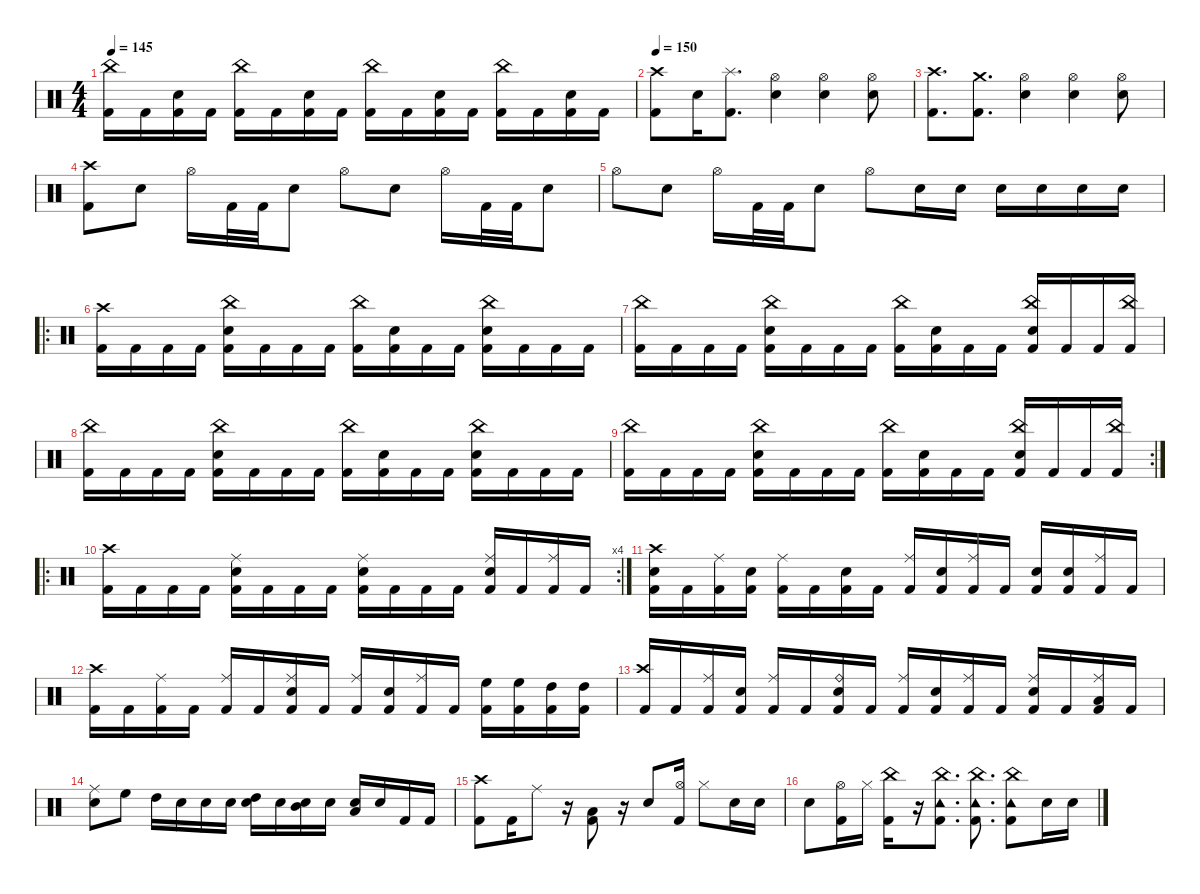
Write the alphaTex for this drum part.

\defaultSystemsLayout 4
\hideDynamics
\bracketExtendMode nobrackets
\singleTrackTrackNamePolicy hidden
\multiTrackTrackNamePolicy hidden
\firstSystemTrackNameMode fullname
\otherSystemsTrackNameOrientation horizontal
\track ("Drums" "drm.") {instrument percussion}
\staff {score}
\articulation defaults
\ts (4 4)
\tempo 145
\clef neutral
\ks c
("Kick (hit) 2" "China (hit)").16{dy f beam Down} "Kick (hit) 2".16{beam Down} ("Snare (hit) 2" "Kick (hit) 2").16{beam Down} "Kick (hit) 2".16{beam Down} ("Kick (hit) 2" "China (hit)").16{beam Down} "Kick (hit) 2".16{beam Down} ("Snare (hit) 2" "Kick (hit) 2").16{beam Down} "Kick (hit) 2".16{beam Down} ("Kick (hit) 2" "China (hit)").16{beam Down} "Kick (hit) 2".16{beam Down} ("Snare (hit) 2" "Kick (hit) 2").16{beam Down} "Kick (hit) 2".16{beam Down} ("Kick (hit) 2" "China (hit)").16{beam Down} "Kick (hit) 2".16{beam Down} ("Snare (hit) 2" "Kick (hit) 2").16{beam Down} "Kick (hit) 2".16{beam Down} |
\tempo 150
("Kick (hit) 2" "Crash high (hit)").8{beam Down} "Snare (hit) 2".16{beam Down} ("Splash (hit)" "Kick (hit) 2").8{d beam Down} ("Hi-Hat (open)" "Snare (hit) 2").4{beam Down} ("Hi-Hat (open)" "Snare (hit) 2").4{beam Down} ("Hi-Hat (open)" "Snare (hit) 2").8{beam Down} |
("Kick (hit) 2" "Crash high (hit)").8{d beam Down} ("Kick (hit) 2" "Crash medium (hit)").8{d beam Down} ("Hi-Hat (open)" "Snare (hit) 2").4{beam Down} ("Hi-Hat (open)" "Snare (hit) 2").4{beam Down} ("Hi-Hat (open)" "Snare (hit) 2").8{beam Down} |
("Kick (hit) 2" "Crash high (hit)").8{beam Down} "Snare (hit) 2".8{beam Down} "Hi-Hat (open)".16{beam Down} "Kick (hit) 2".32{beam Down} "Kick (hit) 2".32{beam Down} "Snare (hit) 2".8{beam Down} "Hi-Hat (open)".8{beam Down} "Snare (hit) 2".8{beam Down} "Hi-Hat (open)".16{beam Down} "Kick (hit) 2".32{beam Down} "Kick (hit) 2".32{beam Down} "Snare (hit) 2".8{beam Down} |
"Hi-Hat (open)".8{beam Down} "Snare (hit) 2".8{beam Down} "Hi-Hat (open)".16{beam Down} "Kick (hit) 2".32{beam Down} "Kick (hit) 2".32{beam Down} "Snare (hit) 2".8{beam Down} "Hi-Hat (open)".8{dy ff beam Down} "Snare (hit) 2".16{dy f beam Down} "Snare (hit) 2".16{beam Down} "Snare (hit) 2".16{beam Down} "Snare (hit) 2".16{beam Down} "Snare (hit) 2".16{beam Down} "Snare (hit) 2".16{beam Down} |
\ro
("Kick (hit) 2" "Crash high (hit)").16{dy mp beam Down} "Kick (hit) 2".16{beam Down} "Kick (hit) 2".16{beam Down} "Kick (hit) 2".16{beam Down} ("Kick (hit) 2" "China (hit)" "Snare (hit) 2").16{beam Down} "Kick (hit) 2".16{beam Down} "Kick (hit) 2".16{beam Down} "Kick (hit) 2".16{beam Down} ("Kick (hit) 2" "China (hit)").16{beam Down} ("Kick (hit) 2" "Snare (hit) 2").16{beam Down} "Kick (hit) 2".16{beam Down} "Kick (hit) 2".16{beam Down} ("Kick (hit) 2" "Snare (hit) 2" "China (hit)").16{beam Down} "Kick (hit) 2".16{beam Down} "Kick (hit) 2".16{beam Down} "Kick (hit) 2".16{beam Down} |
("Kick (hit) 2" "China (hit)").16{beam Down} "Kick (hit) 2".16{beam Down} "Kick (hit) 2".16{beam Down} "Kick (hit) 2".16{beam Down} ("Kick (hit) 2" "China (hit)" "Snare (hit) 2").16{beam Down} "Kick (hit) 2".16{beam Down} "Kick (hit) 2".16{beam Down} "Kick (hit) 2".16{beam Down} ("Kick (hit) 2" "China (hit)").16{beam Down} ("Kick (hit) 2" "Snare (hit) 2").16{beam Down} "Kick (hit) 2".16{beam Down} "Kick (hit) 2".16{beam Down} ("Kick (hit) 2" "Snare (hit) 2" "China (hit)").16{beam Up} "Kick (hit) 2".16{beam Up} "Kick (hit) 2".16{beam Up} ("Kick (hit) 2" "China (hit)").16{beam Up} |
("Kick (hit) 2" "China (hit)").16{beam Down} "Kick (hit) 2".16{beam Down} "Kick (hit) 2".16{beam Down} "Kick (hit) 2".16{beam Down} ("Kick (hit) 2" "China (hit)" "Snare (hit) 2").16{beam Down} "Kick (hit) 2".16{beam Down} "Kick (hit) 2".16{beam Down} "Kick (hit) 2".16{beam Down} ("Kick (hit) 2" "China (hit)").16{beam Down} ("Kick (hit) 2" "Snare (hit) 2").16{beam Down} "Kick (hit) 2".16{beam Down} "Kick (hit) 2".16{beam Down} ("Kick (hit) 2" "Snare (hit) 2" "China (hit)").16{beam Down} "Kick (hit) 2".16{beam Down} "Kick (hit) 2".16{beam Down} "Kick (hit) 2".16{beam Down} |
\rc 2
("Kick (hit) 2" "China (hit)").16{beam Down} "Kick (hit) 2".16{beam Down} "Kick (hit) 2".16{beam Down} "Kick (hit) 2".16{beam Down} ("Kick (hit) 2" "China (hit)" "Snare (hit) 2").16{beam Down} "Kick (hit) 2".16{beam Down} "Kick (hit) 2".16{beam Down} "Kick (hit) 2".16{beam Down} ("Kick (hit) 2" "China (hit)").16{beam Down} ("Kick (hit) 2" "Snare (hit) 2").16{beam Down} "Kick (hit) 2".16{beam Down} "Kick (hit) 2".16{beam Down} ("Kick (hit) 2" "Snare (hit) 2" "China (hit)").16{beam Up} "Kick (hit) 2".16{beam Up} "Kick (hit) 2".16{beam Up} ("Kick (hit) 2" "China (hit)").16{beam Up} |
\ro
\rc 4
\tempo (145 hide)
("Crash high (hit)" "Kick (hit) 2").16{dy f beam Down} "Kick (hit) 2".16{beam Down} "Kick (hit) 2".16{beam Down} "Kick (hit) 2".16{beam Down} ("Kick (hit) 2" "Snare (hit) 2" "Ride (middle)").16{beam Down} "Kick (hit) 2".16{beam Down} "Kick (hit) 2".16{beam Down} "Kick (hit) 2".16{beam Down} ("Kick (hit) 2" "Snare (hit) 2" "Ride (middle)").16{beam Down} "Kick (hit) 2".16{beam Down} "Kick (hit) 2".16{beam Down} "Kick (hit) 2".16{beam Down} ("Kick (hit) 2" "Snare (hit) 2" "Ride (middle)").16{beam Up} "Kick (hit) 2".16{beam Up} ("Kick (hit) 2" "Ride (middle)").16{beam Up} "Kick (hit) 2".16{beam Up} |
("Kick (hit) 2" "Snare (hit) 2" "Crash high (hit)").16{beam Down} "Kick (hit) 2".16{beam Down} ("Kick (hit) 2" "Ride (middle)").16{beam Down} ("Kick (hit) 2" "Snare (hit) 2").16{beam Down} ("Kick (hit) 2" "Ride (middle)").16{beam Down} "Kick (hit) 2".16{beam Down} ("Kick (hit) 2" "Snare (hit) 2").16{beam Down} "Kick (hit) 2".16{beam Down} ("Kick (hit) 2" "Ride (middle)").16{beam Up} ("Kick (hit) 2" "Snare (hit) 2").16{beam Up} ("Kick (hit) 2" "Ride (middle)").16{beam Up} "Kick (hit) 2".16{beam Up} ("Kick (hit) 2" "Snare (hit) 2").16{beam Up} ("Kick (hit) 2" "Snare (hit) 2").16{beam Up} ("Kick (hit) 2" "Ride (middle)").16{beam Up} "Kick (hit) 2".16{beam Up} |
("Crash high (hit)" "Kick (hit) 2").16{beam Down} "Kick (hit) 2".16{beam Down} ("Kick (hit) 2" "Ride (middle)").16{beam Down} "Kick (hit) 2".16{beam Down} ("Kick (hit) 2" "Ride (middle)").16{beam Up} "Kick (hit) 2".16{beam Up} ("Kick (hit) 2" "Snare (hit) 2" "Ride (middle)").16{beam Up} "Kick (hit) 2".16{beam Up} ("Kick (hit) 2" "Ride (middle)").16{beam Up} ("Kick (hit) 2" "Snare (hit) 2").16{beam Up} ("Kick (hit) 2" "Ride (middle)").16{beam Up} "Kick (hit) 2".16{beam Up} ("Kick (hit) 2" "High Floor Tom (hit)").16{beam Down} ("Kick (hit) 2" "High Floor Tom (hit)").16{beam Down} ("Kick (hit) 2" "High Tom (hit)").16{beam Down} ("Kick (hit) 2" "High Tom (hit)").16{beam Down} |
("Kick (hit) 2" "Crash high (hit)").16{beam Up} "Kick (hit) 2".16{beam Up} ("Kick (hit) 2" "Ride (middle)").16{beam Up} ("Kick (hit) 2" "Snare (hit) 2").16{beam Up} ("Kick (hit) 2" "Ride (middle)").16{beam Up} "Kick (hit) 2".16{beam Up} ("Kick (hit) 2" "Ride (bell)" "Snare (hit) 2").16{beam Up} "Kick (hit) 2".16{beam Up} ("Kick (hit) 2" "Ride (middle)").16{beam Up} ("Kick (hit) 2" "Snare (hit) 2").16{beam Up} ("Kick (hit) 2" "Ride (middle)").16{beam Up} "Kick (hit) 2".16{beam Up} ("Kick (hit) 2" "Snare (hit) 2" "Ride (middle)").16{beam Up} "Kick (hit) 2".16{beam Up} ("Kick (hit) 2" "Low Floor Tom (hit)" "Ride (middle)").16{beam Up} "Kick (hit) 2".16{beam Up} |
("Snare (hit) 2" "Ride (middle)").8{beam Down} "High Floor Tom (hit)".8{beam Down} "High Tom (hit)".16{beam Down} "Snare (hit) 2".16{dy pp beam Down} "Snare (hit) 2".16{beam Down} "Snare (hit) 2".16{beam Down} ("High Tom (hit)" "Snare (hit) 2").16{dy f beam Down} "Snare (hit) 2".16{dy pp beam Down} ("Mid Tom (hit)" "Snare (hit) 2").16{dy f beam Down} "Snare (hit) 2".16{dy pp beam Down} ("Snare (hit) 2" "Low Tom (hit)").16{dy f beam Up} "Snare (hit) 2".16{beam Up} "Kick (hit) 2".16{beam Up} "Kick (hit) 2".16{beam Up} |
("Crash high (hit)" "Kick (hit) 2").8{beam Down} "Kick (hit) 2".16{beam Down} "Ride (middle)".8{beam Down} r.16{beam Down} ("Low Tom (hit)" "Kick (hit) 2").8{beam Up} r.16{beam Up} "Snare (hit) 2".8{beam Down} ("Hi-Hat (open)" "Kick (hit) 2").16{beam Down} "Hi-Hat (closed)".8{beam Down} "Snare (hit) 2".16{beam Down} "Snare (hit) 2".16{beam Down} |
"Snare (hit) 2".8{beam Down} ("Kick (hit) 2" "Hi-Hat (open)").16{beam Down} "Hi-Hat (closed)".16{beam Down} ("Kick (hit) 2" "China (hit)").16{beam Down} r.16{beam Down} ("Tambourine (hit)" "Kick (hit) 2" "China (hit)").8{d beam Down} ("Tambourine (hit)" "China (hit)" "Kick (hit) 2").8{d beam Down} ("Tambourine (hit)" "China (hit)" "Kick (hit) 2").8{beam Down} "Snare (hit) 2".16{beam Down} "Snare (hit) 2".16{beam Down}
